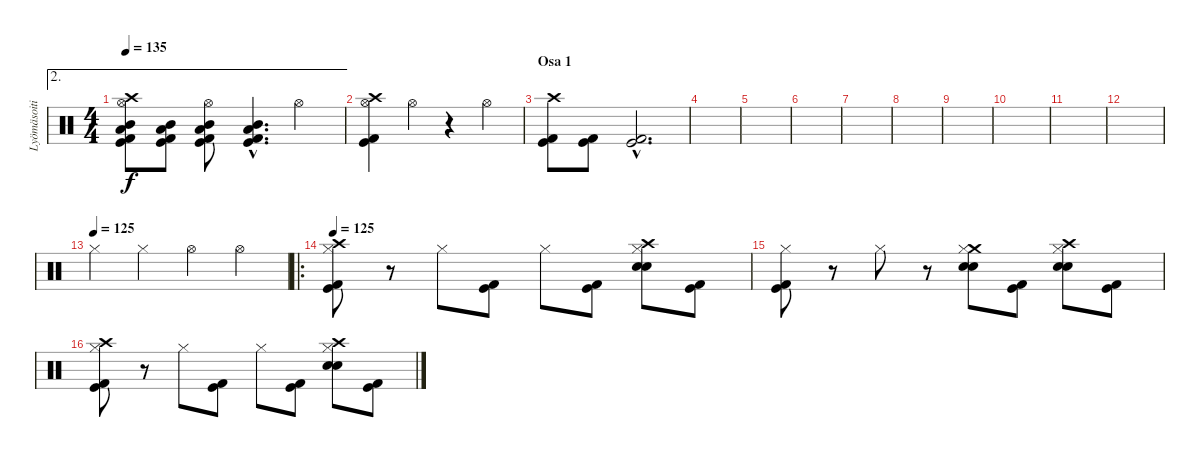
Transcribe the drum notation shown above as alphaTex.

\track ("Lyömäsoitin" "Lyömäsoiti") {instrument percussion}
\staff {score}
\articulation defaults
\ae 2
\ts (4 4)
\tempo 135
\clef neutral
\ks c
("Crash high (hit)" "Hi-Hat (open)" "Mid Tom (hit)" "Low Tom (hit)" "Kick (hit) 2" "Kick (hit)").8{dy f} ("Mid Tom (hit)" "Low Tom (hit)" "Kick (hit) 2" "Kick (hit)").8 ("Hi-Hat (open)" "Mid Tom (hit)" "Low Tom (hit)" "Kick (hit) 2" "Kick (hit)").8 ("Mid Tom (hit)"{hac} "Low Tom (hit)"{hac} "Kick (hit) 2"{hac} "Kick (hit)"{hac}).4{d} "Hi-Hat (open)".4 |
("Crash high (hit)" "Hi-Hat (open)" "Kick (hit) 2" "Kick (hit)").4 "Hi-Hat (open)".4 r.4 "Hi-Hat (open)".4 |
\section ("" "Osa 1")
("Crash high (hit)" "Kick (hit) 2"{pm} "Kick (hit)"{pm}).8 ("Kick (hit) 2"{pm} "Kick (hit)"{pm}).8 ("Kick (hit) 2"{hac} "Kick (hit)"{hac}).2{d} |
|
|
|
|
|
|
|
|
|
\tempo (125)
"Hi-Hat (closed)".4 "Hi-Hat (closed)".4 "Hi-Hat (open)".4 "Hi-Hat (open)".4 |
\ro
\tempo 125
("Crash high (hit)" "Hi-Hat (closed)" "Kick (hit)" "Kick (hit) 2").8 r.8 "Hi-Hat (closed)".8 ("Kick (hit)" "Kick (hit) 2").8 "Hi-Hat (closed)".8 ("Kick (hit)" "Kick (hit) 2").8 ("Crash high (hit)" "Electric Snare (hit)" "Hi-Hat (closed)" "Snare (hit) 2").8 ("Kick (hit) 2" "Kick (hit)").8 |
("Hi-Hat (closed)" "Kick (hit) 2" "Kick (hit)").8 r.8 "Hi-Hat (closed)".8 r.8 ("Crash medium (hit)" "Hi-Hat (closed)" "Electric Snare (hit)" "Snare (hit) 2").8 ("Kick (hit)" "Kick (hit) 2").8 ("Crash high (hit)" "Hi-Hat (closed)" "Electric Snare (hit)" "Snare (hit) 2").8 ("Kick (hit) 2" "Kick (hit)").8 |
("Crash high (hit)" "Hi-Hat (closed)" "Kick (hit)" "Kick (hit) 2").8 r.8 "Hi-Hat (closed)".8 ("Kick (hit)" "Kick (hit) 2").8 "Hi-Hat (closed)".8 ("Kick (hit)" "Kick (hit) 2").8 ("Crash high (hit)" "Electric Snare (hit)" "Hi-Hat (closed)" "Snare (hit) 2").8 ("Kick (hit) 2" "Kick (hit)").8
